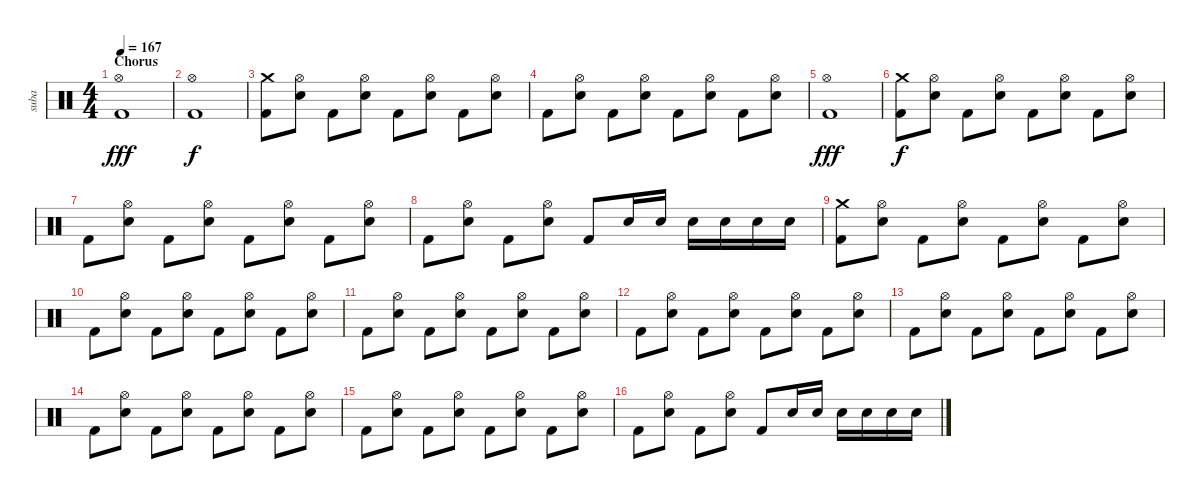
\track ("suba" "suba") {instrument percussion}
\staff {score}
\articulation defaults
\ts (4 4)
\section ("" "Chorus")
\tempo 167
\clef neutral
\ks c
("Hi-Hat (open)" "Kick (hit) 2").1{dy fff} |
("Hi-Hat (open)" "Kick (hit) 2").1{dy f} |
("Crash medium (hit)" "Kick (hit) 2").8 ("Hi-Hat (open)" "Electric Snare (hit)").8 "Kick (hit) 2".8 ("Hi-Hat (open)" "Electric Snare (hit)").8 "Kick (hit) 2".8 ("Hi-Hat (open)" "Electric Snare (hit)").8 "Kick (hit) 2".8 ("Hi-Hat (open)" "Electric Snare (hit)").8 |
"Kick (hit) 2".8 ("Hi-Hat (open)" "Electric Snare (hit)").8 "Kick (hit) 2".8 ("Hi-Hat (open)" "Electric Snare (hit)").8 "Kick (hit) 2".8 ("Hi-Hat (open)" "Electric Snare (hit)").8 "Kick (hit) 2".8 ("Hi-Hat (open)" "Electric Snare (hit)").8 |
("Hi-Hat (open)" "Kick (hit) 2").1{dy fff} |
("Crash medium (hit)" "Kick (hit) 2").8{dy f} ("Hi-Hat (open)" "Electric Snare (hit)").8 "Kick (hit) 2".8 ("Hi-Hat (open)" "Electric Snare (hit)").8 "Kick (hit) 2".8 ("Hi-Hat (open)" "Electric Snare (hit)").8 "Kick (hit) 2".8 ("Hi-Hat (open)" "Electric Snare (hit)").8 |
"Kick (hit) 2".8 ("Hi-Hat (open)" "Electric Snare (hit)").8 "Kick (hit) 2".8 ("Hi-Hat (open)" "Electric Snare (hit)").8 "Kick (hit) 2".8 ("Hi-Hat (open)" "Electric Snare (hit)").8 "Kick (hit) 2".8 ("Hi-Hat (open)" "Electric Snare (hit)").8 |
"Kick (hit) 2".8 ("Hi-Hat (open)" "Electric Snare (hit)").8 "Kick (hit) 2".8 ("Hi-Hat (open)" "Electric Snare (hit)").8 "Kick (hit) 2".8 "Electric Snare (hit)".16 "Electric Snare (hit)".16 "Electric Snare (hit)".16 "Electric Snare (hit)".16 "Electric Snare (hit)".16 "Electric Snare (hit)".16 |
("Crash medium (hit)" "Kick (hit) 2").8 ("Hi-Hat (open)" "Electric Snare (hit)").8 "Kick (hit) 2".8 ("Hi-Hat (open)" "Electric Snare (hit)").8 "Kick (hit) 2".8 ("Hi-Hat (open)" "Electric Snare (hit)").8 "Kick (hit) 2".8 ("Hi-Hat (open)" "Electric Snare (hit)").8 |
"Kick (hit) 2".8 ("Hi-Hat (open)" "Electric Snare (hit)").8 "Kick (hit) 2".8 ("Hi-Hat (open)" "Electric Snare (hit)").8 "Kick (hit) 2".8 ("Hi-Hat (open)" "Electric Snare (hit)").8 "Kick (hit) 2".8 ("Hi-Hat (open)" "Electric Snare (hit)").8 |
"Kick (hit) 2".8 ("Hi-Hat (open)" "Electric Snare (hit)").8 "Kick (hit) 2".8 ("Hi-Hat (open)" "Electric Snare (hit)").8 "Kick (hit) 2".8 ("Hi-Hat (open)" "Electric Snare (hit)").8 "Kick (hit) 2".8 ("Hi-Hat (open)" "Electric Snare (hit)").8 |
"Kick (hit) 2".8 ("Hi-Hat (open)" "Electric Snare (hit)").8 "Kick (hit) 2".8 ("Hi-Hat (open)" "Electric Snare (hit)").8 "Kick (hit) 2".8 ("Hi-Hat (open)" "Electric Snare (hit)").8 "Kick (hit) 2".8 ("Hi-Hat (open)" "Electric Snare (hit)").8 |
"Kick (hit) 2".8 ("Hi-Hat (open)" "Electric Snare (hit)").8 "Kick (hit) 2".8 ("Hi-Hat (open)" "Electric Snare (hit)").8 "Kick (hit) 2".8 ("Hi-Hat (open)" "Electric Snare (hit)").8 "Kick (hit) 2".8 ("Hi-Hat (open)" "Electric Snare (hit)").8 |
"Kick (hit) 2".8 ("Hi-Hat (open)" "Electric Snare (hit)").8 "Kick (hit) 2".8 ("Hi-Hat (open)" "Electric Snare (hit)").8 "Kick (hit) 2".8 ("Hi-Hat (open)" "Electric Snare (hit)").8 "Kick (hit) 2".8 ("Hi-Hat (open)" "Electric Snare (hit)").8 |
"Kick (hit) 2".8 ("Hi-Hat (open)" "Electric Snare (hit)").8 "Kick (hit) 2".8 ("Hi-Hat (open)" "Electric Snare (hit)").8 "Kick (hit) 2".8 ("Hi-Hat (open)" "Electric Snare (hit)").8 "Kick (hit) 2".8 ("Hi-Hat (open)" "Electric Snare (hit)").8 |
"Kick (hit) 2".8 ("Hi-Hat (open)" "Electric Snare (hit)").8 "Kick (hit) 2".8 ("Hi-Hat (open)" "Electric Snare (hit)").8 "Kick (hit) 2".8 "Electric Snare (hit)".16 "Electric Snare (hit)".16 "Electric Snare (hit)".16 "Electric Snare (hit)".16 "Electric Snare (hit)".16 "Electric Snare (hit)".16
